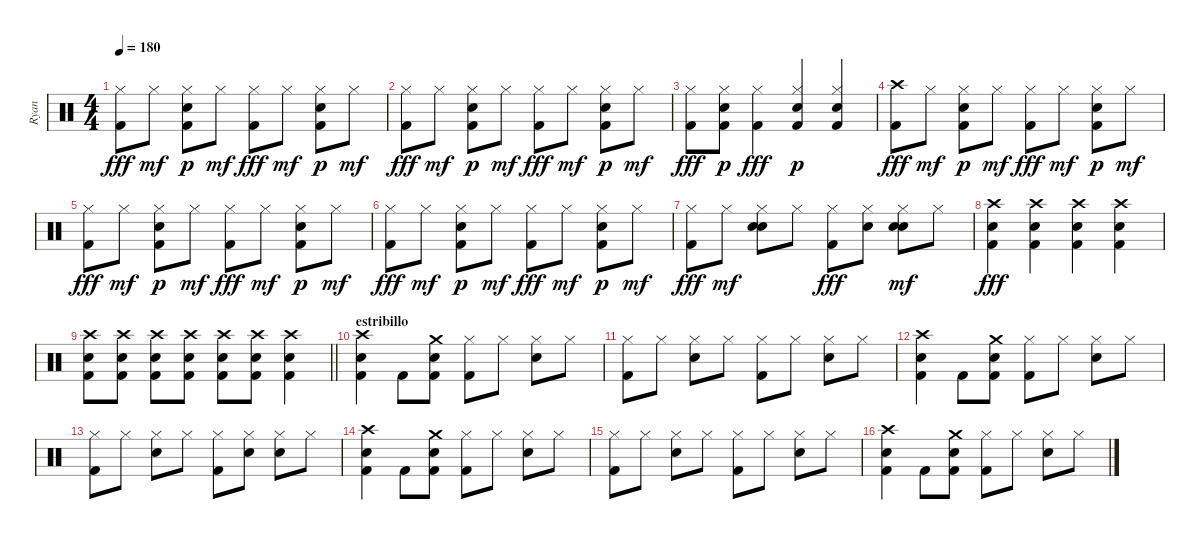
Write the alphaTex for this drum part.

\track ("Ryan" "Ryan") {instrument percussion}
\staff {score}
\articulation defaults
\ts (4 4)
\tempo 180
\clef neutral
\ks c
("Kick (hit) 2" "Hi-Hat (closed)").8{dy fff} "Hi-Hat (closed)".8{dy mf} ("Snare (hit) 2" "Hi-Hat (closed)" "Kick (hit) 2").8{dy p} "Hi-Hat (closed)".8{dy mf} ("Kick (hit) 2" "Hi-Hat (closed)").8{dy fff} "Hi-Hat (closed)".8{dy mf} ("Snare (hit) 2" "Hi-Hat (closed)" "Kick (hit) 2").8{dy p} "Hi-Hat (closed)".8{dy mf} |
("Kick (hit) 2" "Hi-Hat (closed)").8{dy fff} "Hi-Hat (closed)".8{dy mf} ("Snare (hit) 2" "Hi-Hat (closed)" "Kick (hit) 2").8{dy p} "Hi-Hat (closed)".8{dy mf} ("Kick (hit) 2" "Hi-Hat (closed)").8{dy fff} "Hi-Hat (closed)".8{dy mf} ("Snare (hit) 2" "Hi-Hat (closed)" "Kick (hit) 2").8{dy p} "Hi-Hat (closed)".8{dy mf} |
("Kick (hit) 2" "Hi-Hat (closed)").8{dy fff} ("Snare (hit) 2" "Hi-Hat (closed)" "Kick (hit) 2").8{dy p} ("Kick (hit) 2" "Hi-Hat (closed)").4{dy fff} ("Snare (hit) 2" "Hi-Hat (closed)" "Kick (hit) 2").4{dy p} ("Snare (hit) 2" "Hi-Hat (closed)" "Kick (hit) 2").4 |
("Kick (hit) 2" "Crash high (hit)").8{dy fff} "Hi-Hat (closed)".8{dy mf} ("Snare (hit) 2" "Hi-Hat (closed)" "Kick (hit) 2").8{dy p} "Hi-Hat (closed)".8{dy mf} ("Kick (hit) 2" "Hi-Hat (closed)").8{dy fff} "Hi-Hat (closed)".8{dy mf} ("Snare (hit) 2" "Hi-Hat (closed)" "Kick (hit) 2").8{dy p} "Hi-Hat (closed)".8{dy mf} |
("Kick (hit) 2" "Hi-Hat (closed)").8{dy fff} "Hi-Hat (closed)".8{dy mf} ("Snare (hit) 2" "Hi-Hat (closed)" "Kick (hit) 2").8{dy p} "Hi-Hat (closed)".8{dy mf} ("Kick (hit) 2" "Hi-Hat (closed)").8{dy fff} "Hi-Hat (closed)".8{dy mf} ("Snare (hit) 2" "Hi-Hat (closed)" "Kick (hit) 2").8{dy p} "Hi-Hat (closed)".8{dy mf} |
("Kick (hit) 2" "Hi-Hat (closed)").8{dy fff} "Hi-Hat (closed)".8{dy mf} ("Snare (hit) 2" "Hi-Hat (closed)" "Kick (hit) 2").8{dy p} "Hi-Hat (closed)".8{dy mf} ("Kick (hit) 2" "Hi-Hat (closed)").8{dy fff} "Hi-Hat (closed)".8{dy mf} ("Snare (hit) 2" "Hi-Hat (closed)" "Kick (hit) 2").8{dy p} "Hi-Hat (closed)".8{dy mf} |
("Kick (hit) 2" "Hi-Hat (closed)").8{dy fff} "Hi-Hat (closed)".8{dy mf} ("Snare (hit) 2" "Hi-Hat (closed)" "Hand Clap (hit)").8 "Hi-Hat (closed)".8 ("Kick (hit) 2" "Hi-Hat (closed)").8{dy fff} ("Snare (hit) 2" "Hi-Hat (closed)").8 ("Snare (hit) 2" "Hi-Hat (closed)" "Hand Clap (hit)").8{dy mf} "Hi-Hat (closed)".8 |
("Crash high (hit)" "Snare (hit) 2" "Kick (hit) 2").4{dy fff} ("Crash high (hit)" "Snare (hit) 2" "Kick (hit) 2").4 ("Crash high (hit)" "Snare (hit) 2" "Kick (hit) 2").4 ("Crash high (hit)" "Snare (hit) 2" "Kick (hit) 2").4 |
\barLineRight lightlight
("Crash high (hit)" "Snare (hit) 2" "Kick (hit) 2").8 ("Crash high (hit)" "Snare (hit) 2" "Kick (hit) 2").8 ("Crash high (hit)" "Snare (hit) 2" "Kick (hit) 2").8 ("Crash high (hit)" "Snare (hit) 2" "Kick (hit) 2").8 ("Crash high (hit)" "Snare (hit) 2" "Kick (hit) 2").8 ("Crash high (hit)" "Snare (hit) 2" "Kick (hit) 2").8 ("Crash high (hit)" "Snare (hit) 2" "Kick (hit) 2").4 |
\section ("" "estribillo")
("Kick (hit) 2" "Snare (hit) 2" "Crash high (hit)").4 "Kick (hit) 2".8 ("Kick (hit) 2" "Snare (hit) 2" "Crash medium (hit)").8 ("Kick (hit) 2" "Hi-Hat (closed)").8 "Hi-Hat (closed)".8 ("Snare (hit) 2" "Hi-Hat (closed)").8 "Hi-Hat (closed)".8 |
("Kick (hit) 2" "Hi-Hat (closed)").8 "Hi-Hat (closed)".8 ("Snare (hit) 2" "Hi-Hat (closed)").8 "Hi-Hat (closed)".8 ("Kick (hit) 2" "Hi-Hat (closed)").8 "Hi-Hat (closed)".8 ("Snare (hit) 2" "Hi-Hat (closed)").8 "Hi-Hat (closed)".8 |
("Kick (hit) 2" "Snare (hit) 2" "Crash high (hit)").4 "Kick (hit) 2".8 ("Kick (hit) 2" "Snare (hit) 2" "Crash medium (hit)").8 ("Kick (hit) 2" "Hi-Hat (closed)").8 "Hi-Hat (closed)".8 ("Snare (hit) 2" "Hi-Hat (closed)").8 "Hi-Hat (closed)".8 |
("Kick (hit) 2" "Hi-Hat (closed)").8 "Hi-Hat (closed)".8 ("Snare (hit) 2" "Hi-Hat (closed)").8 "Hi-Hat (closed)".8 ("Kick (hit) 2" "Hi-Hat (closed)").8 ("Snare (hit) 2" "Hi-Hat (closed)").8 ("Snare (hit) 2" "Hi-Hat (closed)").8 "Hi-Hat (closed)".8 |
("Kick (hit) 2" "Snare (hit) 2" "Crash high (hit)").4 "Kick (hit) 2".8 ("Kick (hit) 2" "Snare (hit) 2" "Crash medium (hit)").8 ("Kick (hit) 2" "Hi-Hat (closed)").8 "Hi-Hat (closed)".8 ("Snare (hit) 2" "Hi-Hat (closed)").8 "Hi-Hat (closed)".8 |
("Kick (hit) 2" "Hi-Hat (closed)").8 "Hi-Hat (closed)".8 ("Snare (hit) 2" "Hi-Hat (closed)").8 "Hi-Hat (closed)".8 ("Kick (hit) 2" "Hi-Hat (closed)").8 "Hi-Hat (closed)".8 ("Snare (hit) 2" "Hi-Hat (closed)").8 "Hi-Hat (closed)".8 |
("Kick (hit) 2" "Snare (hit) 2" "Crash high (hit)").4 "Kick (hit) 2".8 ("Kick (hit) 2" "Snare (hit) 2" "Crash medium (hit)").8 ("Kick (hit) 2" "Hi-Hat (closed)").8 "Hi-Hat (closed)".8 ("Snare (hit) 2" "Hi-Hat (closed)").8 "Hi-Hat (closed)".8
